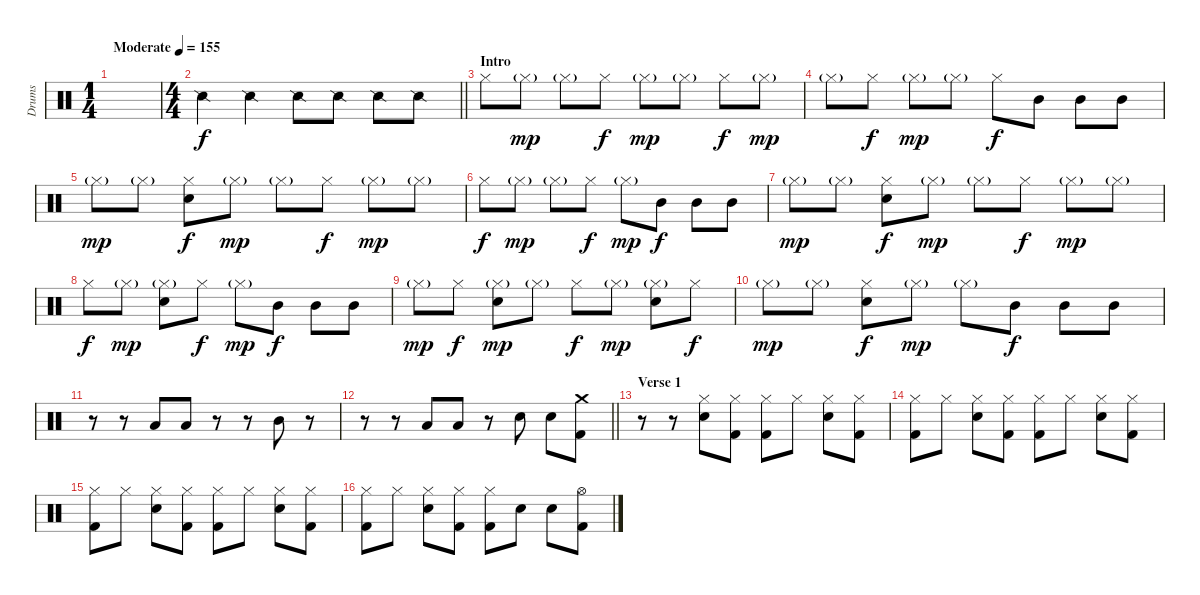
\track ("Drums" "Drums") {instrument percussion}
\staff {score}
\articulation defaults
\ts (1 4)
\tempo (155 "Moderate")
\clef neutral
\ks c
|
\ts (4 4)
\barLineRight lightlight "Snare (side stick) 2".4 "Snare (side stick) 2".4 "Snare (side stick) 2".8 "Snare (side stick) 2".8 "Snare (side stick) 2".8 "Snare (side stick) 2".8
|
\section ("" "Intro")
"Hi-Hat (closed)".8 "Hi-Hat (closed)"{g}.8{dy mp} "Hi-Hat (closed)"{g}.8 "Hi-Hat (closed)".8{dy f} "Hi-Hat (closed)"{g}.8{dy mp} "Hi-Hat (closed)"{g}.8 "Hi-Hat (closed)".8{dy f} "Hi-Hat (closed)"{g}.8{dy mp} |
"Hi-Hat (closed)"{g}.8 "Hi-Hat (closed)".8{dy f} "Hi-Hat (closed)"{g}.8{dy mp} "Hi-Hat (closed)"{g}.8 "Hi-Hat (closed)".8{dy f} "Mid Tom (hit)".8 "Mid Tom (hit)".8 "Mid Tom (hit)".8 |
"Hi-Hat (closed)"{g}.8{dy mp} "Hi-Hat (closed)"{g}.8 ("Hi-Hat (closed)" "Snare (hit) 2").8{dy f} "Hi-Hat (closed)"{g}.8{dy mp} "Hi-Hat (closed)"{g}.8 "Hi-Hat (closed)".8{dy f} "Hi-Hat (closed)"{g}.8{dy mp} "Hi-Hat (closed)"{g}.8 |
"Hi-Hat (closed)".8{dy f} "Hi-Hat (closed)"{g}.8{dy mp} "Hi-Hat (closed)"{g}.8 "Hi-Hat (closed)".8{dy f} "Hi-Hat (closed)"{g}.8{dy mp} "Mid Tom (hit)".8{dy f} "Mid Tom (hit)".8 "Mid Tom (hit)".8 |
"Hi-Hat (closed)"{g}.8{dy mp} "Hi-Hat (closed)"{g}.8 ("Hi-Hat (closed)" "Snare (hit) 2").8{dy f} "Hi-Hat (closed)"{g}.8{dy mp} "Hi-Hat (closed)"{g}.8 "Hi-Hat (closed)".8{dy f} "Hi-Hat (closed)"{g}.8{dy mp} "Hi-Hat (closed)"{g}.8 |
"Hi-Hat (closed)".8{dy f} "Hi-Hat (closed)"{g}.8{dy mp} ("Hi-Hat (closed)"{g} "Snare (hit) 2").8 "Hi-Hat (closed)".8{dy f} "Hi-Hat (closed)"{g}.8{dy mp} "Mid Tom (hit)".8{dy f} "Mid Tom (hit)".8 "Mid Tom (hit)".8 |
"Hi-Hat (closed)"{g}.8{dy mp} "Hi-Hat (closed)".8{dy f} ("Hi-Hat (closed)"{g} "Snare (hit) 2").8{dy mp} "Hi-Hat (closed)"{g}.8 "Hi-Hat (closed)".8{dy f} "Hi-Hat (closed)"{g}.8{dy mp} ("Hi-Hat (closed)"{g} "Snare (hit) 2").8 "Hi-Hat (closed)".8{dy f} |
"Hi-Hat (closed)"{g}.8{dy mp} "Hi-Hat (closed)"{g}.8 ("Hi-Hat (closed)" "Snare (hit) 2").8{dy f} "Hi-Hat (closed)"{g}.8{dy mp} "Hi-Hat (closed)"{g}.8 "Mid Tom (hit)".8{dy f} "Mid Tom (hit)".8 "Mid Tom (hit)".8 |
r.8 r.8 "Low Tom (hit)".8 "Low Tom (hit)".8 r.8 r.8 "Mid Tom (hit)".8 r.8 |
\barLineRight lightlight
r.8 r.8 "Low Tom (hit)".8 "Low Tom (hit)".8 r.8 "Snare (hit) 2".8 "Snare (hit) 2".8 ("Crash medium (hit)" "Kick (hit) 2").8 |
\section ("" "Verse 1")
r.8 r.8 ("Hi-Hat (closed)" "Snare (hit) 2").8 ("Hi-Hat (closed)" "Kick (hit) 2").8 ("Hi-Hat (closed)" "Kick (hit) 2").8 "Hi-Hat (closed)".8 ("Hi-Hat (closed)" "Snare (hit) 2").8 ("Hi-Hat (closed)" "Kick (hit) 2").8 |
("Hi-Hat (closed)" "Kick (hit) 2").8 "Hi-Hat (closed)".8 ("Hi-Hat (closed)" "Snare (hit) 2").8 ("Hi-Hat (closed)" "Kick (hit) 2").8 ("Hi-Hat (closed)" "Kick (hit) 2").8 "Hi-Hat (closed)".8 ("Hi-Hat (closed)" "Snare (hit) 2").8 ("Hi-Hat (closed)" "Kick (hit) 2").8 |
("Hi-Hat (closed)" "Kick (hit) 2").8 "Hi-Hat (closed)".8 ("Hi-Hat (closed)" "Snare (hit) 2").8 ("Hi-Hat (closed)" "Kick (hit) 2").8 ("Hi-Hat (closed)" "Kick (hit) 2").8 "Hi-Hat (closed)".8 ("Hi-Hat (closed)" "Snare (hit) 2").8 ("Hi-Hat (closed)" "Kick (hit) 2").8 |
("Hi-Hat (closed)" "Kick (hit) 2").8 "Hi-Hat (closed)".8 ("Hi-Hat (closed)" "Snare (hit) 2").8 ("Hi-Hat (closed)" "Kick (hit) 2").8 ("Hi-Hat (closed)" "Kick (hit) 2").8 "Snare (hit) 2".8 "Snare (hit) 2".8 ("Hi-Hat (open)" "Kick (hit) 2").8
